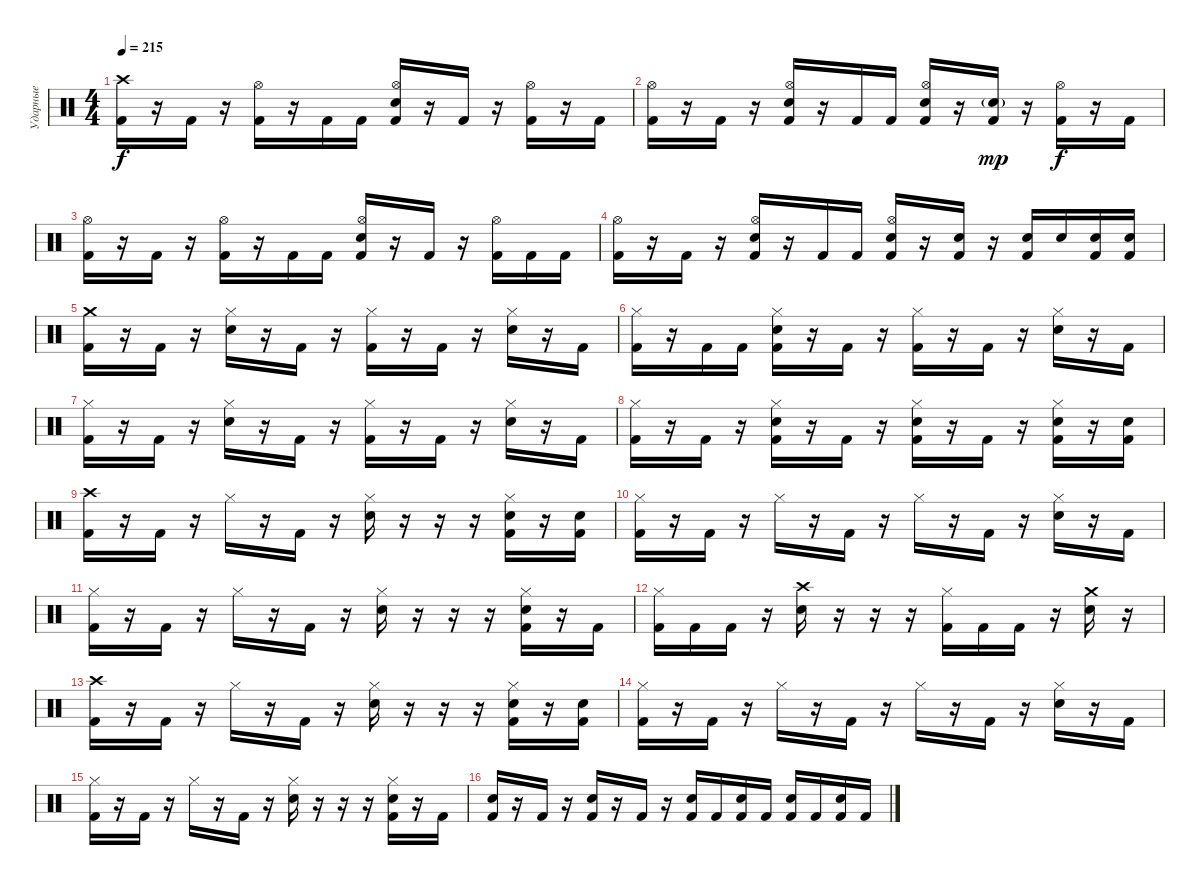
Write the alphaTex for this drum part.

\track ("Ударные" "Ударные") {instrument percussion}
\staff {score}
\articulation defaults
\ts (4 4)
\tempo 215
\clef neutral
\ks c
("Crash high (hit)" "Kick (hit) 2").16{dy f} r.16 "Kick (hit) 2".16 r.16 ("Hi-Hat (open)" "Kick (hit) 2").16 r.16 "Kick (hit) 2".16 "Kick (hit) 2".16 ("Hi-Hat (open)" "Snare (hit) 2" "Kick (hit) 2").16 r.16 "Kick (hit) 2".16 r.16 ("Hi-Hat (open)" "Kick (hit) 2").16 r.16 "Kick (hit) 2".16 |
("Hi-Hat (open)" "Kick (hit) 2").16 r.16 "Kick (hit) 2".16 r.16 ("Hi-Hat (open)" "Snare (hit) 2" "Kick (hit) 2").16 r.16 "Kick (hit) 2".16 "Kick (hit) 2".16 ("Hi-Hat (open)" "Snare (hit) 2" "Kick (hit) 2").16 r.16 ("Snare (hit) 2"{g} "Kick (hit) 2").16{dy mp} r.16 ("Hi-Hat (open)" "Kick (hit) 2").16{dy f} r.16 "Kick (hit) 2".16 |
("Hi-Hat (open)" "Kick (hit) 2").16 r.16 "Kick (hit) 2".16 r.16 ("Hi-Hat (open)" "Kick (hit) 2").16 r.16 "Kick (hit) 2".16 "Kick (hit) 2".16 ("Hi-Hat (open)" "Snare (hit) 2" "Kick (hit) 2").16 r.16 "Kick (hit) 2".16 r.16 ("Hi-Hat (open)" "Kick (hit) 2").16 "Kick (hit) 2".16 "Kick (hit) 2".16 |
("Hi-Hat (open)" "Kick (hit) 2").16 r.16 "Kick (hit) 2".16 r.16 ("Hi-Hat (open)" "Snare (hit) 2" "Kick (hit) 2").16 r.16 "Kick (hit) 2".16 "Kick (hit) 2".16 ("Hi-Hat (open)" "Snare (hit) 2" "Kick (hit) 2").16 r.16 ("Snare (hit) 2" "Kick (hit) 2").16 r.16 ("Snare (hit) 2" "Kick (hit) 2").16 "Snare (hit) 2".16 ("Snare (hit) 2" "Kick (hit) 2").16 ("Snare (hit) 2" "Kick (hit) 2").16 |
("Crash medium (hit)" "Kick (hit) 2").16 r.16 "Kick (hit) 2".16 r.16 ("Hi-Hat (closed)" "Snare (hit) 2").16 r.16 "Kick (hit) 2".16 r.16 ("Hi-Hat (closed)" "Kick (hit) 2").16 r.16 "Kick (hit) 2".16 r.16 ("Hi-Hat (closed)" "Snare (hit) 2").16 r.16 "Kick (hit) 2".16 |
("Hi-Hat (closed)" "Kick (hit) 2").16 r.16 "Kick (hit) 2".16 "Kick (hit) 2".16 ("Hi-Hat (closed)" "Snare (hit) 2" "Kick (hit) 2").16 r.16 "Kick (hit) 2".16 r.16 ("Hi-Hat (closed)" "Kick (hit) 2").16 r.16 "Kick (hit) 2".16 r.16 ("Hi-Hat (closed)" "Snare (hit) 2").16 r.16 "Kick (hit) 2".16 |
("Hi-Hat (closed)" "Kick (hit) 2").16 r.16 "Kick (hit) 2".16 r.16 ("Hi-Hat (closed)" "Snare (hit) 2").16 r.16 "Kick (hit) 2".16 r.16 ("Hi-Hat (closed)" "Kick (hit) 2").16 r.16 "Kick (hit) 2".16 r.16 ("Hi-Hat (closed)" "Snare (hit) 2").16 r.16 "Kick (hit) 2".16 |
("Hi-Hat (closed)" "Kick (hit) 2").16 r.16 "Kick (hit) 2".16 r.16 ("Hi-Hat (closed)" "Snare (hit) 2" "Kick (hit) 2").16 r.16 "Kick (hit) 2".16 r.16 ("Hi-Hat (closed)" "Snare (hit) 2" "Kick (hit) 2").16 r.16 "Kick (hit) 2".16 r.16 ("Hi-Hat (closed)" "Snare (hit) 2" "Kick (hit) 2").16 r.16 ("Snare (hit) 2" "Kick (hit) 2").16 |
("Crash high (hit)" "Kick (hit) 2").16 r.16 "Kick (hit) 2".16 r.16 "Hi-Hat (closed)".16 r.16 "Kick (hit) 2".16 r.16 ("Hi-Hat (closed)" "Snare (hit) 2").16 r.16 r.16 r.16 ("Hi-Hat (closed)" "Snare (hit) 2" "Kick (hit) 2").16 r.16 ("Snare (hit) 2" "Kick (hit) 2").16 |
("Hi-Hat (closed)" "Kick (hit) 2").16 r.16 "Kick (hit) 2".16 r.16 "Hi-Hat (closed)".16 r.16 "Kick (hit) 2".16 r.16 "Hi-Hat (closed)".16 r.16 "Kick (hit) 2".16 r.16 ("Hi-Hat (closed)" "Snare (hit) 2").16 r.16 "Kick (hit) 2".16 |
("Hi-Hat (closed)" "Kick (hit) 2").16 r.16 "Kick (hit) 2".16 r.16 "Hi-Hat (closed)".16 r.16 "Kick (hit) 2".16 r.16 ("Hi-Hat (closed)" "Snare (hit) 2").16 r.16 r.16 r.16 ("Hi-Hat (closed)" "Snare (hit) 2" "Kick (hit) 2").16 r.16 "Kick (hit) 2".16 |
("Hi-Hat (closed)" "Kick (hit) 2").16 "Kick (hit) 2".16 "Kick (hit) 2".16 r.16 ("Crash high (hit)" "Snare (hit) 2").16 r.16 r.16 r.16 ("Hi-Hat (closed)" "Kick (hit) 2").16 "Kick (hit) 2".16 "Kick (hit) 2".16 r.16 ("Crash medium (hit)" "Snare (hit) 2").16 r.16 |
("Crash high (hit)" "Kick (hit) 2").16 r.16 "Kick (hit) 2".16 r.16 "Hi-Hat (closed)".16 r.16 "Kick (hit) 2".16 r.16 ("Hi-Hat (closed)" "Snare (hit) 2").16 r.16 r.16 r.16 ("Hi-Hat (closed)" "Snare (hit) 2" "Kick (hit) 2").16 r.16 ("Snare (hit) 2" "Kick (hit) 2").16 |
("Hi-Hat (closed)" "Kick (hit) 2").16 r.16 "Kick (hit) 2".16 r.16 "Hi-Hat (closed)".16 r.16 "Kick (hit) 2".16 r.16 "Hi-Hat (closed)".16 r.16 "Kick (hit) 2".16 r.16 ("Hi-Hat (closed)" "Snare (hit) 2").16 r.16 "Kick (hit) 2".16 |
("Hi-Hat (closed)" "Kick (hit) 2").16 r.16 "Kick (hit) 2".16 r.16 "Hi-Hat (closed)".16 r.16 "Kick (hit) 2".16 r.16 ("Hi-Hat (closed)" "Snare (hit) 2").16 r.16 r.16 r.16 ("Hi-Hat (closed)" "Snare (hit) 2" "Kick (hit) 2").16 r.16 "Kick (hit) 2".16 |
("Snare (hit) 2" "Kick (hit) 2").16 r.16 "Kick (hit) 2".16 r.16 ("Snare (hit) 2" "Kick (hit) 2").16 r.16 "Kick (hit) 2".16 r.16 ("Snare (hit) 2" "Kick (hit) 2").16 "Kick (hit) 2".16 ("Snare (hit) 2" "Kick (hit) 2").16 "Kick (hit) 2".16 ("Snare (hit) 2" "Kick (hit) 2").16 "Kick (hit) 2".16 ("Snare (hit) 2" "Kick (hit) 2").16 "Kick (hit) 2".16
